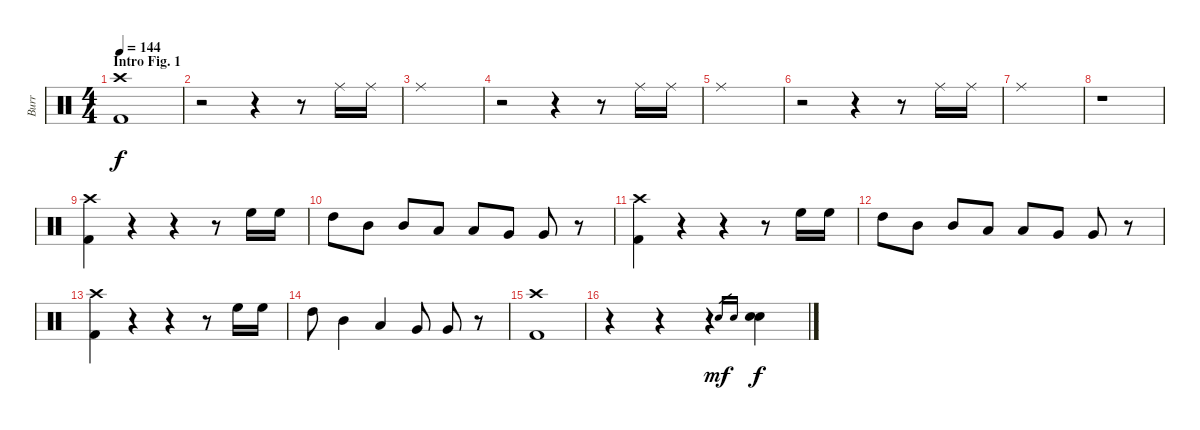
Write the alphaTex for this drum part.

\track ("Burr" "Burr") {instrument percussion}
\staff {score}
\articulation defaults
\ts (4 4)
\section ("" "Intro Fig. 1")
\tempo 144
\clef neutral
\ks c
("Crash high (hit)" "Kick (hit) 2").1{dy f} |
r.2 r.4 r.8 "Ride (middle)".16 "Ride (middle)".16 |
"Ride (middle)".1 |
r.2 r.4 r.8 "Ride (middle)".16 "Ride (middle)".16 |
"Ride (middle)".1 |
r.2 r.4 r.8 "Ride (middle)".16 "Ride (middle)".16 |
"Ride (middle)".1 |
r.1 |
("Crash high (hit)" "Kick (hit) 2").4 r.4 r.4 r.8 "High Floor Tom (hit)".16 "High Floor Tom (hit)".16 |
"High Tom (hit)".8 "Mid Tom (hit)".8 "Mid Tom (hit)".8 "Low Tom (hit)".8 "Low Tom (hit)".8 "Very Low Tom (hit)".8 "Very Low Tom (hit)".8 r.8 |
("Crash high (hit)" "Kick (hit) 2").4 r.4 r.4 r.8 "High Floor Tom (hit)".16 "High Floor Tom (hit)".16 |
"High Tom (hit)".8 "Mid Tom (hit)".8 "Mid Tom (hit)".8 "Low Tom (hit)".8 "Low Tom (hit)".8 "Very Low Tom (hit)".8 "Very Low Tom (hit)".8 r.8 |
("Crash high (hit)" "Kick (hit) 2").4 r.4 r.4 r.8 "High Floor Tom (hit)".16 "High Floor Tom (hit)".16 |
"High Tom (hit)".8 "Mid Tom (hit)".4 "Low Tom (hit)".4 "Very Low Tom (hit)".8 "Very Low Tom (hit)".8 r.8 |
("Crash high (hit)" "Kick (hit) 2").1 |
r.4 r.4 r.4 "Snare (hit) 2".16{gr dy mf} "Snare (hit) 2".16{gr} ("Snare (hit) 2" "Snare (hit) 2").4{dy f}
